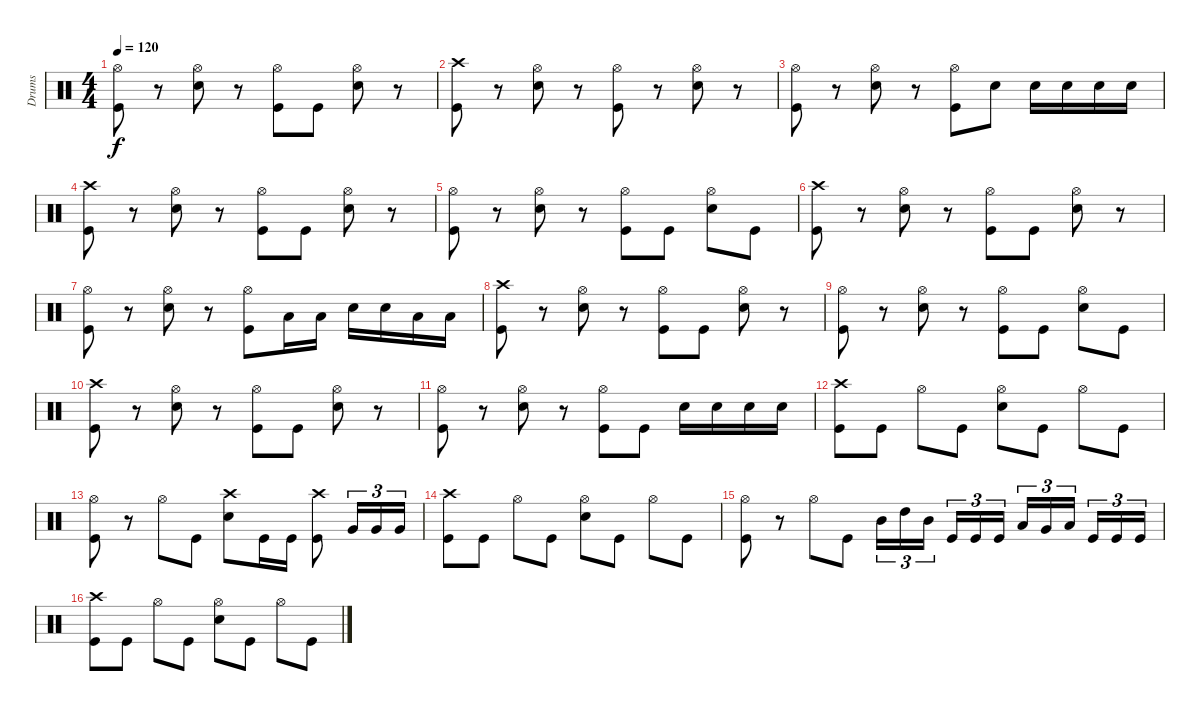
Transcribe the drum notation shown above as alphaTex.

\track ("Drums" "Drums") {instrument percussion}
\staff {score}
\articulation defaults
\ts (4 4)
\tempo 120
\clef neutral
\ks c
("Hi-Hat (open)" "Kick (hit)").8{dy f} r.8 ("Hi-Hat (open)" "Snare (hit) 2").8 r.8 ("Hi-Hat (open)" "Kick (hit)").8 "Kick (hit)".8 ("Hi-Hat (open)" "Snare (hit) 2").8 r.8 |
("Crash high (hit)" "Kick (hit)").8 r.8 ("Hi-Hat (open)" "Snare (hit) 2").8 r.8 ("Hi-Hat (open)" "Kick (hit)").8 r.8 ("Hi-Hat (open)" "Snare (hit) 2").8 r.8 |
("Hi-Hat (open)" "Kick (hit)").8 r.8 ("Hi-Hat (open)" "Snare (hit) 2").8 r.8 ("Kick (hit)" "Hi-Hat (open)").8 "Snare (hit) 2".8 "Snare (hit) 2".16 "Snare (hit) 2".16 "Snare (hit) 2".16 "Snare (hit) 2".16 |
("Crash high (hit)" "Kick (hit)").8 r.8 ("Hi-Hat (open)" "Snare (hit) 2").8 r.8 ("Hi-Hat (open)" "Kick (hit)").8 "Kick (hit)".8 ("Hi-Hat (open)" "Snare (hit) 2").8 r.8 |
("Hi-Hat (open)" "Kick (hit)").8 r.8 ("Hi-Hat (open)" "Snare (hit) 2").8 r.8 ("Hi-Hat (open)" "Kick (hit)").8 "Kick (hit)".8 ("Hi-Hat (open)" "Snare (hit) 2").8 "Kick (hit)".8 |
("Crash high (hit)" "Kick (hit)").8 r.8 ("Hi-Hat (open)" "Snare (hit) 2").8 r.8 ("Hi-Hat (open)" "Kick (hit)").8 "Kick (hit)".8 ("Hi-Hat (open)" "Snare (hit) 2").8 r.8 |
("Hi-Hat (open)" "Kick (hit)").8 r.8 ("Hi-Hat (open)" "Snare (hit) 2").8 r.8 ("Hi-Hat (open)" "Kick (hit)").8 "Low Tom (hit)".16 "Low Tom (hit)".16 "Snare (hit) 2".16 "Snare (hit) 2".16 "Low Tom (hit)".16 "Low Tom (hit)".16 |
("Crash high (hit)" "Kick (hit)").8 r.8 ("Hi-Hat (open)" "Snare (hit) 2").8 r.8 ("Hi-Hat (open)" "Kick (hit)").8 "Kick (hit)".8 ("Hi-Hat (open)" "Snare (hit) 2").8 r.8 |
("Hi-Hat (open)" "Kick (hit)").8 r.8 ("Hi-Hat (open)" "Snare (hit) 2").8 r.8 ("Hi-Hat (open)" "Kick (hit)").8 "Kick (hit)".8 ("Hi-Hat (open)" "Snare (hit) 2").8 "Kick (hit)".8 |
("Crash high (hit)" "Kick (hit)").8 r.8 ("Hi-Hat (open)" "Snare (hit) 2").8 r.8 ("Hi-Hat (open)" "Kick (hit)").8 "Kick (hit)".8 ("Hi-Hat (open)" "Snare (hit) 2").8 r.8 |
("Hi-Hat (open)" "Kick (hit)").8 r.8 ("Hi-Hat (open)" "Snare (hit) 2").8 r.8 ("Hi-Hat (open)" "Kick (hit)").8 "Kick (hit)".8 "Snare (hit) 2".16 "Snare (hit) 2".16 "Snare (hit) 2".16 "Snare (hit) 2".16 |
("Kick (hit)" "Crash high (hit)").8 "Kick (hit)".8 "Hi-Hat (open)".8 "Kick (hit)".8 ("Hi-Hat (open)" "Snare (hit) 2").8 "Kick (hit)".8 "Hi-Hat (open)".8 "Kick (hit)".8 |
("Hi-Hat (open)" "Kick (hit)").8 r.8 "Hi-Hat (open)".8 "Kick (hit)".8 ("Snare (hit) 2" "Crash high (hit)").8 "Kick (hit)".16 "Kick (hit)".16 ("Kick (hit)" "Crash high (hit)").8 "Very Low Tom (hit)".16{tu (3 2)} "Very Low Tom (hit)".16{tu (3 2)} "Very Low Tom (hit)".16{tu (3 2)} |
("Kick (hit)" "Crash high (hit)").8 "Kick (hit)".8 "Hi-Hat (open)".8 "Kick (hit)".8 ("Hi-Hat (open)" "Snare (hit) 2").8 "Kick (hit)".8 "Hi-Hat (open)".8 "Kick (hit)".8 |
("Hi-Hat (open)" "Kick (hit)").8 r.8 "Hi-Hat (open)".8 "Kick (hit)".8 "Mid Tom (hit)".16{tu (3 2)} "High Tom (hit)".16{tu (3 2)} "Mid Tom (hit)".16{tu (3 2)} "Kick (hit)".16{tu (3 2)} "Kick (hit)".16{tu (3 2)} "Kick (hit)".16{tu (3 2)} "Low Tom (hit)".16{tu (3 2)} "Very Low Tom (hit)".16{tu (3 2)} "Low Tom (hit)".16{tu (3 2)} "Kick (hit)".16{tu (3 2)} "Kick (hit)".16{tu (3 2)} "Kick (hit)".16{tu (3 2)} |
("Kick (hit)" "Crash high (hit)").8 "Kick (hit)".8 "Hi-Hat (open)".8 "Kick (hit)".8 ("Hi-Hat (open)" "Snare (hit) 2").8 "Kick (hit)".8 "Hi-Hat (open)".8 "Kick (hit)".8
